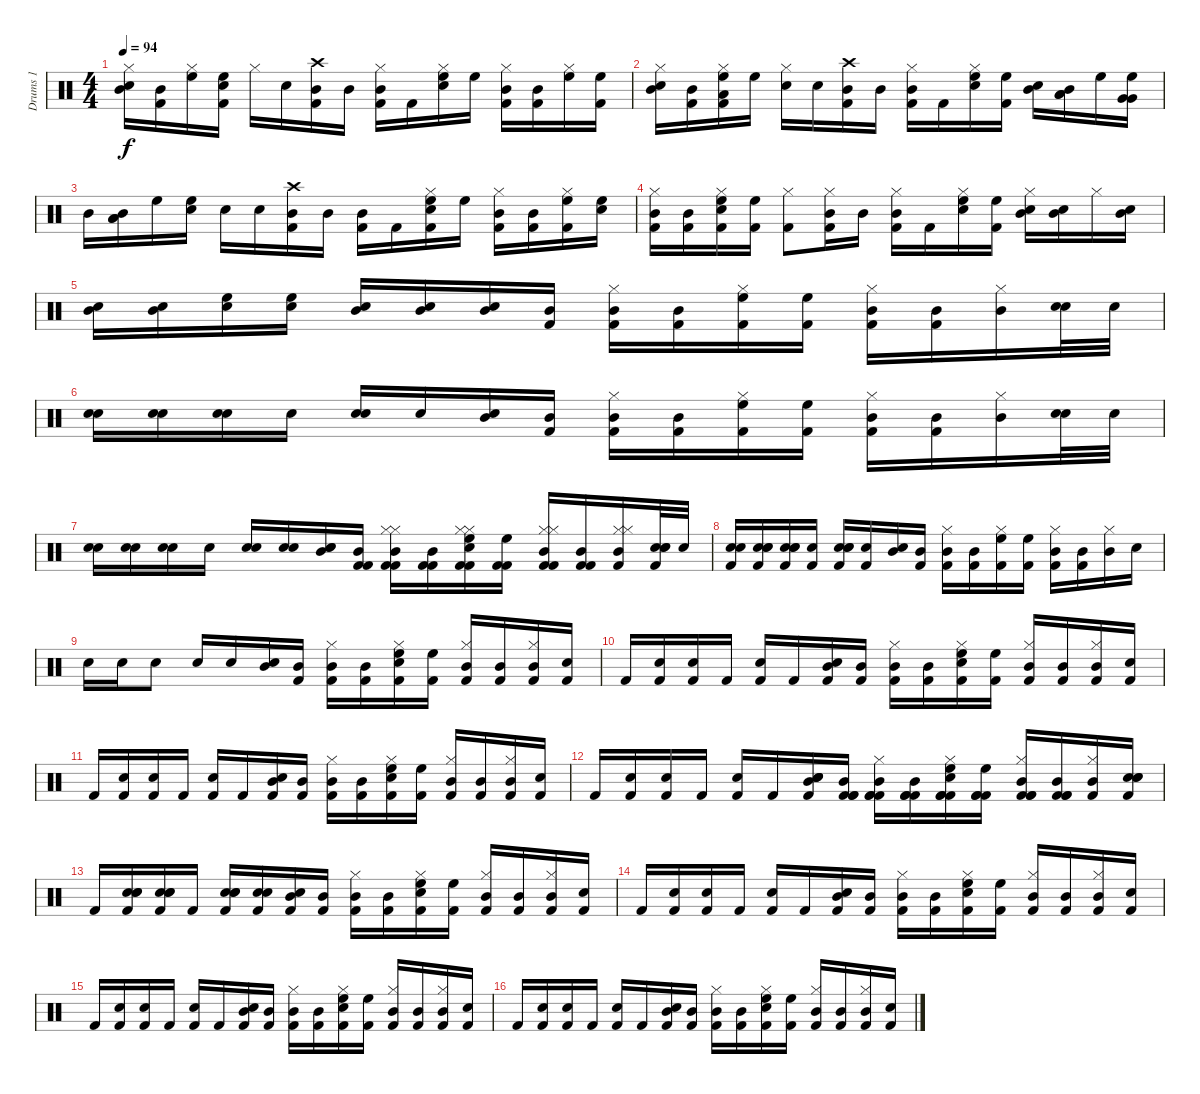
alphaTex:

\track ("Drums 1" "Drums 1") {instrument percussion}
\staff {score}
\articulation defaults
\ts (4 4)
\tempo 94
\clef neutral
\ks c
("Mid Tom (hit)" "Electric Snare (hit)" "Hi-Hat (closed)").16{dy f} ("Mid Tom (hit)" "Kick (hit) 2").16 ("High Floor Tom (hit)" "Hi-Hat (closed)").16 ("High Floor Tom (hit)" "Snare (hit) 2" "Kick (hit) 2").16 "Hi-Hat (closed)".16 "Snare (hit) 2".16 ("Mid Tom (hit)" "Kick (hit) 2" "Crash high (hit)").16 "Mid Tom (hit)".16 ("Mid Tom (hit)" "Kick (hit) 2" "Hi-Hat (closed)").16 "Kick (hit) 2".16 ("High Floor Tom (hit)" "Snare (hit) 2" "Hi-Hat (closed)").16 "High Floor Tom (hit)".16 ("Mid Tom (hit)" "Kick (hit) 2" "Hi-Hat (closed)").16 ("Mid Tom (hit)" "Kick (hit) 2").16 ("High Floor Tom (hit)" "Hi-Hat (closed)").16 ("High Floor Tom (hit)" "Kick (hit) 2").16 |
("Mid Tom (hit)" "Electric Snare (hit)" "Hi-Hat (closed)").16 ("Mid Tom (hit)" "Kick (hit) 2").16 ("High Floor Tom (hit)" "Hi-Hat (closed)" "Kick (hit) 2" "Low Tom (hit)").16 "High Floor Tom (hit)".16 ("Hi-Hat (closed)" "Electric Snare (hit)").16 "Snare (hit) 2".16 ("Mid Tom (hit)" "Kick (hit) 2" "Crash high (hit)").16 "Mid Tom (hit)".16 ("Mid Tom (hit)" "Kick (hit) 2" "Hi-Hat (closed)").16 "Kick (hit) 2".16 ("High Floor Tom (hit)" "Snare (hit) 2" "Hi-Hat (closed)").16 ("High Floor Tom (hit)" "Kick (hit) 2").16 ("Mid Tom (hit)" "Snare (hit) 2").16 ("Mid Tom (hit)" "Low Tom (hit)" "Low Tom (hit)").16 "High Floor Tom (hit)".16 ("High Floor Tom (hit)" "Very Low Tom (hit)" "Very Low Tom (hit)").16 |
"Mid Tom (hit)".16 ("Mid Tom (hit)" "Low Floor Tom (hit)" "Low Floor Tom (hit)").16 "High Floor Tom (hit)".16 ("High Floor Tom (hit)" "Snare (hit) 2").16 "Snare (hit) 2".16 "Snare (hit) 2".16 ("Mid Tom (hit)" "Kick (hit) 2" "Crash high (hit)").16 "Mid Tom (hit)".16 ("Mid Tom (hit)" "Kick (hit) 2").16 "Kick (hit) 2".16 ("High Floor Tom (hit)" "Kick (hit) 2" "Snare (hit) 2" "Hi-Hat (closed)").16 "High Floor Tom (hit)".16 ("Mid Tom (hit)" "Kick (hit) 2" "Hi-Hat (closed)").16 ("Mid Tom (hit)" "Kick (hit) 2").16 ("High Floor Tom (hit)" "Kick (hit) 2" "Hi-Hat (closed)").16 ("High Floor Tom (hit)" "Snare (hit) 2").16 |
("Mid Tom (hit)" "Kick (hit) 2" "Hi-Hat (closed)").16 ("Mid Tom (hit)" "Kick (hit) 2").16 ("High Floor Tom (hit)" "Kick (hit) 2" "Electric Snare (hit)" "Hi-Hat (closed)").16 ("High Floor Tom (hit)" "Kick (hit) 2").16 ("Kick (hit) 2" "Hi-Hat (closed)").8 ("Mid Tom (hit)" "Kick (hit) 2" "Hi-Hat (closed)").16 "Mid Tom (hit)".16 ("Mid Tom (hit)" "Kick (hit) 2" "Hi-Hat (closed)").16 "Kick (hit) 2".16 ("High Floor Tom (hit)" "Snare (hit) 2" "Hi-Hat (closed)").16 ("High Floor Tom (hit)" "Kick (hit) 2").16 ("Mid Tom (hit)" "Electric Snare (hit)" "Hi-Hat (closed)").16 ("Mid Tom (hit)" "Electric Snare (hit)").16 "Hi-Hat (closed)".16 ("Mid Tom (hit)" "Snare (hit) 2").16 |
("Mid Tom (hit)" "Snare (hit) 2").16 ("Mid Tom (hit)" "Snare (hit) 2").16 ("High Floor Tom (hit)" "Snare (hit) 2").16 ("High Floor Tom (hit)" "Snare (hit) 2").16 ("Mid Tom (hit)" "Snare (hit) 2").16 ("Mid Tom (hit)" "Electric Snare (hit)").16 ("Mid Tom (hit)" "Electric Snare (hit)").16 ("Mid Tom (hit)" "Kick (hit) 2").16 ("Mid Tom (hit)" "Hi-Hat (closed)" "Kick (hit) 2").16 ("Mid Tom (hit)" "Kick (hit) 2").16 ("High Floor Tom (hit)" "Hi-Hat (closed)" "Kick (hit) 2").16 ("High Floor Tom (hit)" "Kick (hit) 2").16 ("Mid Tom (hit)" "Hi-Hat (closed)" "Kick (hit) 2").16 ("Mid Tom (hit)" "Kick (hit) 2").16 ("Mid Tom (hit)" "Hi-Hat (closed)").16 ("Snare (hit) 2" "Snare (hit) 2").32 "Snare (hit) 2".32 |
("Snare (hit) 2" "Snare (hit) 2").16 ("Electric Snare (hit)" "Snare (hit) 2").16 ("Snare (hit) 2" "Snare (hit) 2").16 "Snare (hit) 2".16 ("Electric Snare (hit)" "Snare (hit) 2").16 "Snare (hit) 2".16 ("Mid Tom (hit)" "Electric Snare (hit)").16 ("Mid Tom (hit)" "Kick (hit) 2").16 ("Mid Tom (hit)" "Hi-Hat (closed)" "Kick (hit) 2").16 ("Mid Tom (hit)" "Kick (hit) 2").16 ("High Floor Tom (hit)" "Hi-Hat (closed)" "Kick (hit) 2").16 ("High Floor Tom (hit)" "Kick (hit) 2").16 ("Mid Tom (hit)" "Hi-Hat (closed)" "Kick (hit) 2").16 ("Mid Tom (hit)" "Kick (hit) 2").16 ("Mid Tom (hit)" "Hi-Hat (closed)").16 ("Snare (hit) 2" "Snare (hit) 2").32 "Snare (hit) 2".32 |
("Snare (hit) 2" "Snare (hit) 2").16 ("Snare (hit) 2" "Snare (hit) 2").16 ("Electric Snare (hit)" "Snare (hit) 2").16 "Electric Snare (hit)".16 ("Electric Snare (hit)" "Snare (hit) 2").16 ("Snare (hit) 2" "Snare (hit) 2").16 ("Mid Tom (hit)" "Snare (hit) 2" "Electric Snare (hit)").16 ("Mid Tom (hit)" "Kick (hit) 2" "Kick (hit) 2").16 ("Mid Tom (hit)" "Hi-Hat (closed)" "Kick (hit) 2" "Hi-Hat (closed)" "Kick (hit) 2").16 ("Mid Tom (hit)" "Kick (hit) 2" "Kick (hit) 2").16 ("High Floor Tom (hit)" "Hi-Hat (closed)" "Kick (hit) 2" "Electric Snare (hit)" "Hi-Hat (closed)" "Kick (hit) 2").16 ("High Floor Tom (hit)" "Kick (hit) 2" "Kick (hit) 2").16 ("Mid Tom (hit)" "Hi-Hat (closed)" "Kick (hit) 2" "Hi-Hat (closed)" "Kick (hit) 2").16 ("Mid Tom (hit)" "Kick (hit) 2" "Kick (hit) 2").16 ("Mid Tom (hit)" "Hi-Hat (closed)" "Kick (hit) 2" "Hi-Hat (closed)").16 ("Snare (hit) 2" "Kick (hit) 2" "Electric Snare (hit)" "Snare (hit) 2").32 "Snare (hit) 2".32 |
("Electric Snare (hit)" "Kick (hit) 2" "Snare (hit) 2").16 ("Snare (hit) 2" "Kick (hit) 2" "Electric Snare (hit)" "Snare (hit) 2").16 ("Snare (hit) 2" "Snare (hit) 2" "Kick (hit) 2" "Snare (hit) 2").16 ("Snare (hit) 2" "Kick (hit) 2").16 ("Electric Snare (hit)" "Kick (hit) 2" "Snare (hit) 2" "Snare (hit) 2").16 ("Electric Snare (hit)" "Kick (hit) 2").16 ("Mid Tom (hit)" "Electric Snare (hit)").16 ("Mid Tom (hit)" "Kick (hit) 2").16 ("Mid Tom (hit)" "Hi-Hat (closed)" "Kick (hit) 2").16 ("Mid Tom (hit)" "Kick (hit) 2").16 ("High Floor Tom (hit)" "Hi-Hat (closed)" "Kick (hit) 2").16 ("High Floor Tom (hit)" "Kick (hit) 2").16 ("Mid Tom (hit)" "Hi-Hat (closed)" "Kick (hit) 2").16 ("Mid Tom (hit)" "Kick (hit) 2").16 ("Mid Tom (hit)" "Hi-Hat (closed)").16 "Snare (hit) 2".16 |
"Snare (hit) 2".16 "Snare (hit) 2".16 "Snare (hit) 2".8 "Snare (hit) 2".16 "Snare (hit) 2".16 ("Mid Tom (hit)" "Snare (hit) 2").16 ("Mid Tom (hit)" "Kick (hit) 2").16 ("Mid Tom (hit)" "Hi-Hat (closed)" "Kick (hit) 2").16 ("Mid Tom (hit)" "Kick (hit) 2").16 ("High Floor Tom (hit)" "Hi-Hat (closed)" "Kick (hit) 2" "Electric Snare (hit)").16 ("High Floor Tom (hit)" "Kick (hit) 2").16 ("Mid Tom (hit)" "Hi-Hat (closed)" "Kick (hit) 2").16 ("Mid Tom (hit)" "Kick (hit) 2").16 ("Mid Tom (hit)" "Hi-Hat (closed)" "Kick (hit) 2").16 ("Kick (hit) 2" "Electric Snare (hit)").16 |
"Kick (hit) 2".16 ("Kick (hit) 2" "Electric Snare (hit)").16 ("Snare (hit) 2" "Kick (hit) 2").16 "Kick (hit) 2".16 ("Kick (hit) 2" "Snare (hit) 2").16 "Kick (hit) 2".16 ("Mid Tom (hit)" "Kick (hit) 2" "Snare (hit) 2").16 ("Mid Tom (hit)" "Kick (hit) 2").16 ("Mid Tom (hit)" "Hi-Hat (closed)" "Kick (hit) 2").16 ("Mid Tom (hit)" "Kick (hit) 2").16 ("High Floor Tom (hit)" "Hi-Hat (closed)" "Kick (hit) 2" "Electric Snare (hit)").16 ("High Floor Tom (hit)" "Kick (hit) 2").16 ("Mid Tom (hit)" "Hi-Hat (closed)" "Kick (hit) 2").16 ("Mid Tom (hit)" "Kick (hit) 2").16 ("Mid Tom (hit)" "Hi-Hat (closed)" "Kick (hit) 2").16 ("Kick (hit) 2" "Electric Snare (hit)").16 |
"Kick (hit) 2".16 ("Kick (hit) 2" "Electric Snare (hit)").16 ("Snare (hit) 2" "Kick (hit) 2").16 "Kick (hit) 2".16 ("Kick (hit) 2" "Snare (hit) 2").16 "Kick (hit) 2".16 ("Mid Tom (hit)" "Kick (hit) 2" "Snare (hit) 2").16 ("Mid Tom (hit)" "Kick (hit) 2").16 ("Mid Tom (hit)" "Hi-Hat (closed)" "Kick (hit) 2").16 ("Mid Tom (hit)" "Kick (hit) 2").16 ("High Floor Tom (hit)" "Hi-Hat (closed)" "Kick (hit) 2" "Electric Snare (hit)").16 ("High Floor Tom (hit)" "Kick (hit) 2").16 ("Mid Tom (hit)" "Hi-Hat (closed)" "Kick (hit) 2").16 ("Mid Tom (hit)" "Kick (hit) 2").16 ("Mid Tom (hit)" "Hi-Hat (closed)" "Kick (hit) 2").16 ("Kick (hit) 2" "Electric Snare (hit)").16 |
"Kick (hit) 2".16 ("Kick (hit) 2" "Electric Snare (hit)").16 ("Snare (hit) 2" "Kick (hit) 2").16 "Kick (hit) 2".16 ("Kick (hit) 2" "Snare (hit) 2").16 "Kick (hit) 2".16 ("Mid Tom (hit)" "Snare (hit) 2" "Snare (hit) 2" "Kick (hit) 2" "Snare (hit) 2").16 ("Mid Tom (hit)" "Kick (hit) 2" "Kick (hit) 2" "Kick (hit) 2").16 ("Mid Tom (hit)" "Kick (hit) 2" "Kick (hit) 2" "Hi-Hat (closed)" "Kick (hit) 2").16 ("Mid Tom (hit)" "Kick (hit) 2" "Kick (hit) 2" "Kick (hit) 2").16 ("High Floor Tom (hit)" "Kick (hit) 2" "Kick (hit) 2" "Hi-Hat (closed)" "Kick (hit) 2" "Electric Snare (hit)").16 ("High Floor Tom (hit)" "Kick (hit) 2" "Kick (hit) 2" "Kick (hit) 2").16 ("Mid Tom (hit)" "Kick (hit) 2" "Kick (hit) 2" "Hi-Hat (closed)" "Kick (hit) 2").16 ("Mid Tom (hit)" "Kick (hit) 2" "Kick (hit) 2" "Kick (hit) 2").16 ("Mid Tom (hit)" "Hi-Hat (closed)" "Kick (hit) 2").16 ("Snare (hit) 2" "Snare (hit) 2" "Kick (hit) 2" "Electric Snare (hit)").16 |
"Kick (hit) 2".16 ("Snare (hit) 2" "Snare (hit) 2" "Kick (hit) 2" "Electric Snare (hit)").16 ("Electric Snare (hit)" "Snare (hit) 2" "Snare (hit) 2" "Kick (hit) 2").16 "Kick (hit) 2".16 ("Snare (hit) 2" "Snare (hit) 2" "Kick (hit) 2" "Snare (hit) 2").16 ("Electric Snare (hit)" "Snare (hit) 2" "Kick (hit) 2").16 ("Mid Tom (hit)" "Kick (hit) 2" "Snare (hit) 2").16 ("Mid Tom (hit)" "Kick (hit) 2").16 ("Mid Tom (hit)" "Hi-Hat (closed)" "Kick (hit) 2").16 ("Mid Tom (hit)" "Kick (hit) 2").16 ("High Floor Tom (hit)" "Hi-Hat (closed)" "Kick (hit) 2" "Electric Snare (hit)").16 ("High Floor Tom (hit)" "Kick (hit) 2").16 ("Mid Tom (hit)" "Hi-Hat (closed)" "Kick (hit) 2").16 ("Mid Tom (hit)" "Kick (hit) 2").16 ("Mid Tom (hit)" "Hi-Hat (closed)" "Kick (hit) 2").16 ("Kick (hit) 2" "Electric Snare (hit)").16 |
"Kick (hit) 2".16 ("Kick (hit) 2" "Electric Snare (hit)").16 ("Snare (hit) 2" "Kick (hit) 2").16 "Kick (hit) 2".16 ("Kick (hit) 2" "Snare (hit) 2").16 "Kick (hit) 2".16 ("Mid Tom (hit)" "Kick (hit) 2" "Snare (hit) 2").16 ("Mid Tom (hit)" "Kick (hit) 2").16 ("Mid Tom (hit)" "Hi-Hat (closed)" "Kick (hit) 2").16 ("Mid Tom (hit)" "Kick (hit) 2").16 ("High Floor Tom (hit)" "Hi-Hat (closed)" "Kick (hit) 2" "Electric Snare (hit)").16 ("High Floor Tom (hit)" "Kick (hit) 2").16 ("Mid Tom (hit)" "Hi-Hat (closed)" "Kick (hit) 2").16 ("Mid Tom (hit)" "Kick (hit) 2").16 ("Mid Tom (hit)" "Hi-Hat (closed)" "Kick (hit) 2").16 ("Kick (hit) 2" "Electric Snare (hit)").16 |
"Kick (hit) 2".16 ("Kick (hit) 2" "Electric Snare (hit)").16 ("Snare (hit) 2" "Kick (hit) 2").16 "Kick (hit) 2".16 ("Kick (hit) 2" "Snare (hit) 2").16 "Kick (hit) 2".16 ("Mid Tom (hit)" "Kick (hit) 2" "Snare (hit) 2").16 ("Mid Tom (hit)" "Kick (hit) 2").16 ("Mid Tom (hit)" "Hi-Hat (closed)" "Kick (hit) 2").16 ("Mid Tom (hit)" "Kick (hit) 2").16 ("High Floor Tom (hit)" "Hi-Hat (closed)" "Kick (hit) 2" "Electric Snare (hit)").16 ("High Floor Tom (hit)" "Kick (hit) 2").16 ("Mid Tom (hit)" "Hi-Hat (closed)" "Kick (hit) 2").16 ("Mid Tom (hit)" "Kick (hit) 2").16 ("Mid Tom (hit)" "Hi-Hat (closed)" "Kick (hit) 2").16 ("Kick (hit) 2" "Electric Snare (hit)").16 |
"Kick (hit) 2".16 ("Kick (hit) 2" "Electric Snare (hit)").16 ("Snare (hit) 2" "Kick (hit) 2").16 "Kick (hit) 2".16 ("Kick (hit) 2" "Snare (hit) 2").16 "Kick (hit) 2".16 ("Mid Tom (hit)" "Kick (hit) 2" "Snare (hit) 2").16 ("Mid Tom (hit)" "Kick (hit) 2").16 ("Mid Tom (hit)" "Hi-Hat (closed)" "Kick (hit) 2").16 ("Mid Tom (hit)" "Kick (hit) 2").16 ("High Floor Tom (hit)" "Hi-Hat (closed)" "Kick (hit) 2" "Electric Snare (hit)").16 ("High Floor Tom (hit)" "Kick (hit) 2").16 ("Mid Tom (hit)" "Hi-Hat (closed)" "Kick (hit) 2").16 ("Mid Tom (hit)" "Kick (hit) 2").16 ("Mid Tom (hit)" "Hi-Hat (closed)" "Kick (hit) 2").16 ("Kick (hit) 2" "Electric Snare (hit)").16
